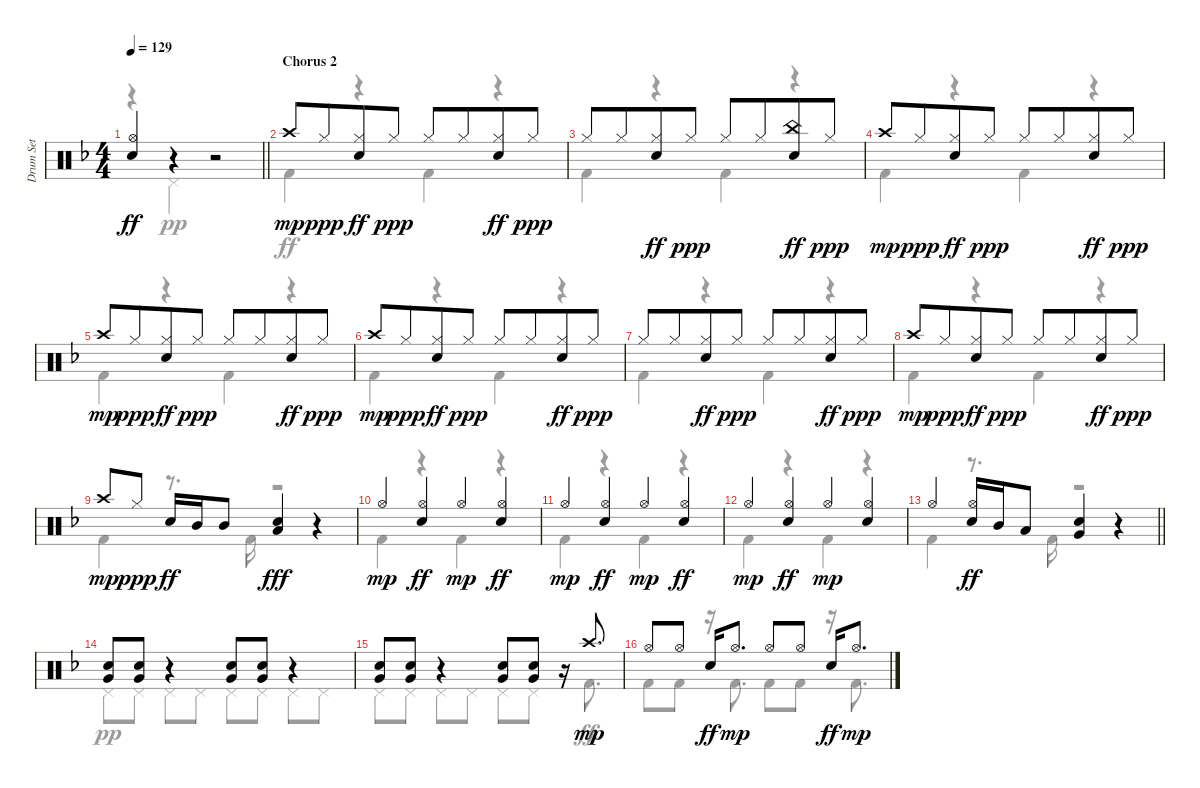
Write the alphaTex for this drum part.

\track ("Drum Set" "Drum Set") {instrument percussion}
\staff {score}
\articulation defaults
\voice
\ts (4 4)
\tempo 129
\clef neutral
\barLineRight lightlight
\ks dminor
("Hi-Hat (open)" "Electric Snare (hit)").4{dy ff} r.4 r.2 |
\section ("" "Chorus 2")
"Crash high (hit)".8{dy mp} "Hi-Hat (closed)".8{dy ppp beam merge} ("Hi-Hat (closed)" "Electric Snare (hit)").8{dy ff} "Hi-Hat (closed)".8{dy ppp} "Hi-Hat (closed)".8 "Hi-Hat (closed)".8{beam merge} ("Hi-Hat (closed)" "Electric Snare (hit)").8{dy ff} "Hi-Hat (closed)".8{dy ppp} |
"Hi-Hat (closed)".8 "Hi-Hat (closed)".8{beam merge} ("Hi-Hat (closed)" "Electric Snare (hit)").8{dy ff} "Hi-Hat (closed)".8{dy ppp} "Hi-Hat (closed)".8 "Hi-Hat (closed)".8{beam merge} ("China (hit)" "Electric Snare (hit)").8{dy ff} "Hi-Hat (closed)".8{dy ppp} |
"Crash high (hit)".8{dy mp} "Hi-Hat (closed)".8{dy ppp beam merge} ("Hi-Hat (closed)" "Electric Snare (hit)").8{dy ff} "Hi-Hat (closed)".8{dy ppp} "Hi-Hat (closed)".8 "Hi-Hat (closed)".8{beam merge} ("Hi-Hat (closed)" "Electric Snare (hit)").8{dy ff} "Hi-Hat (closed)".8{dy ppp} |
"Crash high (hit)".8{dy mp} "Hi-Hat (closed)".8{dy ppp beam merge} ("Hi-Hat (closed)" "Electric Snare (hit)").8{dy ff} "Hi-Hat (closed)".8{dy ppp} "Hi-Hat (closed)".8 "Hi-Hat (closed)".8{beam merge} ("Hi-Hat (closed)" "Electric Snare (hit)").8{dy ff} "Hi-Hat (closed)".8{dy ppp} |
"Crash high (hit)".8{dy mp} "Hi-Hat (closed)".8{dy ppp beam merge} ("Hi-Hat (closed)" "Electric Snare (hit)").8{dy ff} "Hi-Hat (closed)".8{dy ppp} "Hi-Hat (closed)".8 "Hi-Hat (closed)".8{beam merge} ("Hi-Hat (closed)" "Electric Snare (hit)").8{dy ff} "Hi-Hat (closed)".8{dy ppp} |
"Hi-Hat (closed)".8 "Hi-Hat (closed)".8{beam merge} ("Hi-Hat (closed)" "Electric Snare (hit)").8{dy ff} "Hi-Hat (closed)".8{dy ppp} "Hi-Hat (closed)".8 "Hi-Hat (closed)".8{beam merge} ("Hi-Hat (closed)" "Electric Snare (hit)").8{dy ff} "Hi-Hat (closed)".8{dy ppp} |
"Crash high (hit)".8{dy mp} "Hi-Hat (closed)".8{dy ppp beam merge} ("Hi-Hat (closed)" "Electric Snare (hit)").8{dy ff} "Hi-Hat (closed)".8{dy ppp} "Hi-Hat (closed)".8 "Hi-Hat (closed)".8{beam merge} ("Hi-Hat (closed)" "Electric Snare (hit)").8{dy ff} "Hi-Hat (closed)".8{dy ppp} |
"Crash high (hit)".8{dy mp} "Hi-Hat (closed)".8{dy ppp} "Electric Snare (hit)".16{dy ff} "Mid Tom (hit)".16 "Mid Tom (hit)".8 ("Electric Snare (hit)" "Low Floor Tom (hit)").4{dy fff} r.4 |
"Hi-Hat (open)".4{dy mp} ("Hi-Hat (open)" "Electric Snare (hit)").4{dy ff} "Hi-Hat (open)".4{dy mp} ("Hi-Hat (open)" "Electric Snare (hit)").4{dy ff} |
"Hi-Hat (open)".4{dy mp} ("Hi-Hat (open)" "Electric Snare (hit)").4{dy ff} "Hi-Hat (open)".4{dy mp} ("Hi-Hat (open)" "Electric Snare (hit)").4{dy ff} |
"Hi-Hat (open)".4{dy mp} ("Hi-Hat (open)" "Electric Snare (hit)").4{dy ff} "Hi-Hat (open)".4{dy mp} ("Electric Snare (hit)" "Hi-Hat (open)").4 |
\barLineRight lightlight "Hi-Hat (open)".4
("Hi-Hat (open)" "Electric Snare (hit)").16{dy ff} "Mid Tom (hit)".16 "Low Tom (hit)".8 ("Electric Snare (hit)" "Very Low Tom (hit)").4 r.4 |
("Electric Snare (hit)" "Very Low Tom (hit)").8 ("Electric Snare (hit)" "Very Low Tom (hit)").8 r.4 ("Electric Snare (hit)" "Very Low Tom (hit)").8 ("Electric Snare (hit)" "Very Low Tom (hit)").8 r.4 |
("Electric Snare (hit)" "Very Low Tom (hit)").8 ("Electric Snare (hit)" "Very Low Tom (hit)").8 r.4 ("Electric Snare (hit)" "Very Low Tom (hit)").8 ("Electric Snare (hit)" "Very Low Tom (hit)").8 r.16 "Crash high (hit)".8{d dy mp} |
"Hi-Hat (open)".8 "Hi-Hat (open)".8 "Electric Snare (hit)".16{dy ff} "Hi-Hat (open)".8{d dy mp} "Hi-Hat (open)".8 "Hi-Hat (open)".8 "Electric Snare (hit)".16{dy ff} "Hi-Hat (open)".8{d dy mp}
\voice
\clef neutral
\ottava regular
\simile none
\barLineRight lightlight
\ks dminor
r.4{dy ff} "Pedal Hi-Hat (hit)".4{dy pp} r.2 |
"Kick (hit) 2".4{dy ff} r.4 "Kick (hit) 2".4 r.4 |
"Kick (hit) 2".4 r.4 "Kick (hit) 2".4 r.4 |
"Kick (hit) 2".4 r.4 "Kick (hit) 2".4 r.4 |
"Kick (hit) 2".4 r.4 "Kick (hit) 2".4 r.4 |
"Kick (hit) 2".4 r.4 "Kick (hit) 2".4 r.4 |
"Kick (hit) 2".4 r.4 "Kick (hit) 2".4 r.4 |
"Kick (hit) 2".4 r.4 "Kick (hit) 2".4 r.4 |
"Kick (hit) 2".4 r.8{d} "Kick (hit) 2".16 r.2 |
"Kick (hit) 2".4 r.4 "Kick (hit) 2".4 r.4 |
"Kick (hit) 2".4 r.4 "Kick (hit) 2".4 r.4 |
"Kick (hit) 2".4 r.4 "Kick (hit) 2".4 r.4 |
\barLineRight lightlight "Kick (hit) 2".4
r.8{d} "Kick (hit) 2".16 r.2 |
"Pedal Hi-Hat (hit)".8{dy pp} "Pedal Hi-Hat (hit)".8 "Pedal Hi-Hat (hit)".8 "Pedal Hi-Hat (hit)".8 "Pedal Hi-Hat (hit)".8 "Pedal Hi-Hat (hit)".8 "Pedal Hi-Hat (hit)".8 "Pedal Hi-Hat (hit)".8 |
"Pedal Hi-Hat (hit)".8 "Pedal Hi-Hat (hit)".8 "Pedal Hi-Hat (hit)".8 "Pedal Hi-Hat (hit)".8 "Pedal Hi-Hat (hit)".8 "Pedal Hi-Hat (hit)".8 r.16 "Kick (hit) 2".8{d dy ff} |
"Kick (hit) 2".8 "Kick (hit) 2".8 r.16 "Kick (hit) 2".8{d} "Kick (hit) 2".8 "Kick (hit) 2".8 r.16 "Kick (hit) 2".8{d}
